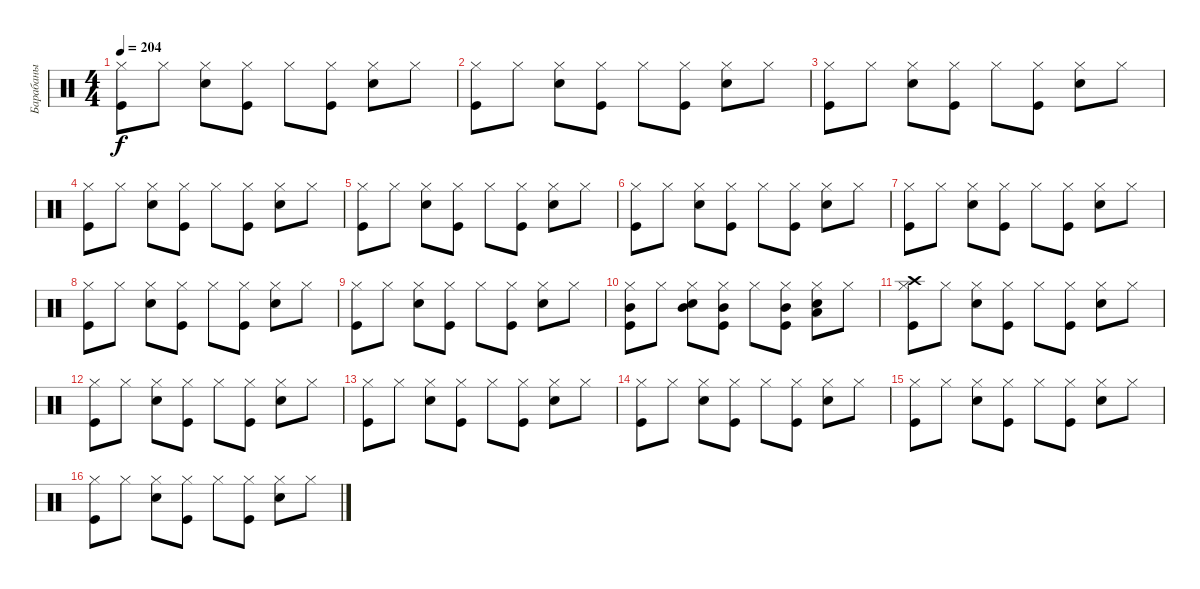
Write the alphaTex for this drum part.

\track ("Барабаны" "Барабаны") {instrument percussion}
\staff {score}
\articulation defaults
\ts (4 4)
\tempo 204
\clef neutral
\ks c
("Kick (hit)" "Hi-Hat (closed)").8{dy f} "Hi-Hat (closed)".8 ("Snare (hit) 2" "Hi-Hat (closed)").8 ("Kick (hit)" "Hi-Hat (closed)").8 "Hi-Hat (closed)".8 ("Kick (hit)" "Hi-Hat (closed)").8 ("Snare (hit) 2" "Hi-Hat (closed)").8 "Hi-Hat (closed)".8 |
("Kick (hit)" "Hi-Hat (closed)").8 "Hi-Hat (closed)".8 ("Snare (hit) 2" "Hi-Hat (closed)").8 ("Kick (hit)" "Hi-Hat (closed)").8 "Hi-Hat (closed)".8 ("Kick (hit)" "Hi-Hat (closed)").8 ("Snare (hit) 2" "Hi-Hat (closed)").8 "Hi-Hat (closed)".8 |
("Kick (hit)" "Hi-Hat (closed)").8 "Hi-Hat (closed)".8 ("Snare (hit) 2" "Hi-Hat (closed)").8 ("Kick (hit)" "Hi-Hat (closed)").8 "Hi-Hat (closed)".8 ("Kick (hit)" "Hi-Hat (closed)").8 ("Snare (hit) 2" "Hi-Hat (closed)").8 "Hi-Hat (closed)".8 |
("Kick (hit)" "Hi-Hat (closed)").8 "Hi-Hat (closed)".8 ("Snare (hit) 2" "Hi-Hat (closed)").8 ("Kick (hit)" "Hi-Hat (closed)").8 "Hi-Hat (closed)".8 ("Kick (hit)" "Hi-Hat (closed)").8 ("Snare (hit) 2" "Hi-Hat (closed)").8 "Hi-Hat (closed)".8 |
("Kick (hit)" "Hi-Hat (closed)").8 "Hi-Hat (closed)".8 ("Snare (hit) 2" "Hi-Hat (closed)").8 ("Kick (hit)" "Hi-Hat (closed)").8 "Hi-Hat (closed)".8 ("Kick (hit)" "Hi-Hat (closed)").8 ("Snare (hit) 2" "Hi-Hat (closed)").8 "Hi-Hat (closed)".8 |
("Kick (hit)" "Hi-Hat (closed)").8 "Hi-Hat (closed)".8 ("Snare (hit) 2" "Hi-Hat (closed)").8 ("Kick (hit)" "Hi-Hat (closed)").8 "Hi-Hat (closed)".8 ("Kick (hit)" "Hi-Hat (closed)").8 ("Snare (hit) 2" "Hi-Hat (closed)").8 "Hi-Hat (closed)".8 |
("Kick (hit)" "Hi-Hat (closed)").8 "Hi-Hat (closed)".8 ("Snare (hit) 2" "Hi-Hat (closed)").8 ("Kick (hit)" "Hi-Hat (closed)").8 "Hi-Hat (closed)".8 ("Kick (hit)" "Hi-Hat (closed)").8 ("Snare (hit) 2" "Hi-Hat (closed)").8 "Hi-Hat (closed)".8 |
("Kick (hit)" "Hi-Hat (closed)").8 "Hi-Hat (closed)".8 ("Snare (hit) 2" "Hi-Hat (closed)").8 ("Kick (hit)" "Hi-Hat (closed)").8 "Hi-Hat (closed)".8 ("Kick (hit)" "Hi-Hat (closed)").8 ("Snare (hit) 2" "Hi-Hat (closed)").8 "Hi-Hat (closed)".8 |
("Kick (hit)" "Hi-Hat (closed)").8 "Hi-Hat (closed)".8 ("Snare (hit) 2" "Hi-Hat (closed)").8 ("Kick (hit)" "Hi-Hat (closed)").8 "Hi-Hat (closed)".8 ("Kick (hit)" "Hi-Hat (closed)").8 ("Snare (hit) 2" "Hi-Hat (closed)").8 "Hi-Hat (closed)".8 |
("Kick (hit)" "Hi-Hat (closed)" "Mid Tom (hit)").8 "Hi-Hat (closed)".8 ("Snare (hit) 2" "Hi-Hat (closed)" "Mid Tom (hit)").8 ("Kick (hit)" "Hi-Hat (closed)" "Mid Tom (hit)").8 "Hi-Hat (closed)".8 ("Kick (hit)" "Hi-Hat (closed)" "Mid Tom (hit)").8 ("Snare (hit) 2" "Hi-Hat (closed)" "Low Tom (hit)").8 "Hi-Hat (closed)".8 |
("Kick (hit)" "Hi-Hat (closed)" "Crash high (hit)").8 "Hi-Hat (closed)".8 ("Snare (hit) 2" "Hi-Hat (closed)").8 ("Kick (hit)" "Hi-Hat (closed)").8 "Hi-Hat (closed)".8 ("Kick (hit)" "Hi-Hat (closed)").8 ("Snare (hit) 2" "Hi-Hat (closed)").8 "Hi-Hat (closed)".8 |
("Kick (hit)" "Hi-Hat (closed)").8 "Hi-Hat (closed)".8 ("Snare (hit) 2" "Hi-Hat (closed)").8 ("Kick (hit)" "Hi-Hat (closed)").8 "Hi-Hat (closed)".8 ("Kick (hit)" "Hi-Hat (closed)").8 ("Snare (hit) 2" "Hi-Hat (closed)").8 "Hi-Hat (closed)".8 |
("Kick (hit)" "Hi-Hat (closed)").8 "Hi-Hat (closed)".8 ("Snare (hit) 2" "Hi-Hat (closed)").8 ("Kick (hit)" "Hi-Hat (closed)").8 "Hi-Hat (closed)".8 ("Kick (hit)" "Hi-Hat (closed)").8 ("Snare (hit) 2" "Hi-Hat (closed)").8 "Hi-Hat (closed)".8 |
("Kick (hit)" "Hi-Hat (closed)").8 "Hi-Hat (closed)".8 ("Snare (hit) 2" "Hi-Hat (closed)").8 ("Kick (hit)" "Hi-Hat (closed)").8 "Hi-Hat (closed)".8 ("Kick (hit)" "Hi-Hat (closed)").8 ("Snare (hit) 2" "Hi-Hat (closed)").8 "Hi-Hat (closed)".8 |
("Kick (hit)" "Hi-Hat (closed)").8 "Hi-Hat (closed)".8 ("Snare (hit) 2" "Hi-Hat (closed)").8 ("Kick (hit)" "Hi-Hat (closed)").8 "Hi-Hat (closed)".8 ("Kick (hit)" "Hi-Hat (closed)").8 ("Snare (hit) 2" "Hi-Hat (closed)").8 "Hi-Hat (closed)".8 |
("Kick (hit)" "Hi-Hat (closed)").8 "Hi-Hat (closed)".8 ("Snare (hit) 2" "Hi-Hat (closed)").8 ("Kick (hit)" "Hi-Hat (closed)").8 "Hi-Hat (closed)".8 ("Kick (hit)" "Hi-Hat (closed)").8 ("Snare (hit) 2" "Hi-Hat (closed)").8 "Hi-Hat (closed)".8
